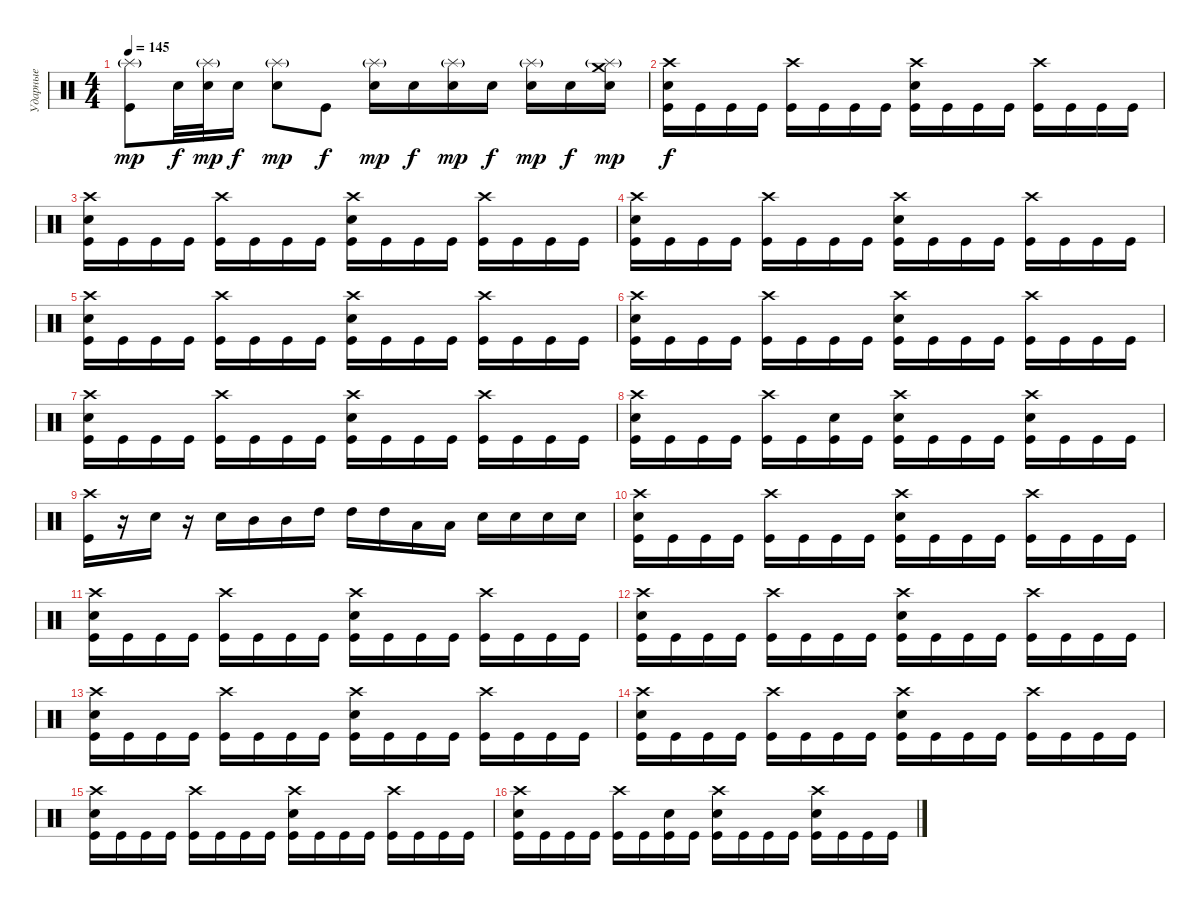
\track ("Ударные" "Ударные") {instrument percussion}
\staff {score}
\articulation defaults
\ts (4 4)
\tempo 145
\clef neutral
\ks c
("Splash (hit)"{g} "Kick (hit)").8{dy mp} "Snare (hit) 2".32{dy f} ("Splash (hit)"{g} "Snare (hit) 2").32{dy mp} "Snare (hit) 2".16{dy f} ("Splash (hit)"{g} "Electric Snare (hit)").8{dy mp} "Kick (hit)".8{dy f} ("Splash (hit)"{g} "Snare (hit) 2").16{dy mp} "Snare (hit) 2".16{dy f} ("Splash (hit)"{g} "Snare (hit) 2").16{dy mp} "Snare (hit) 2".16{dy f} ("Splash (hit)"{g} "Electric Snare (hit)").16{dy mp} "Electric Snare (hit)".16{dy f} ("Splash (hit)"{g} "Electric Snare (hit)" "Crash medium (hit)").16{dy mp} |
("Kick (hit)" "Electric Snare (hit)" "Crash high (hit)").16{dy f} "Kick (hit)".16 "Kick (hit)".16 "Kick (hit)".16 ("Kick (hit)" "Crash high (hit)").16 "Kick (hit)".16 "Kick (hit)".16 "Kick (hit)".16 ("Kick (hit)" "Electric Snare (hit)" "Crash high (hit)").16 "Kick (hit)".16 "Kick (hit)".16 "Kick (hit)".16 ("Kick (hit)" "Crash high (hit)").16 "Kick (hit)".16 "Kick (hit)".16 "Kick (hit)".16 |
("Kick (hit)" "Electric Snare (hit)" "Crash high (hit)").16 "Kick (hit)".16 "Kick (hit)".16 "Kick (hit)".16 ("Kick (hit)" "Crash high (hit)").16 "Kick (hit)".16 "Kick (hit)".16 "Kick (hit)".16 ("Kick (hit)" "Electric Snare (hit)" "Crash high (hit)").16 "Kick (hit)".16 "Kick (hit)".16 "Kick (hit)".16 ("Kick (hit)" "Crash high (hit)").16 "Kick (hit)".16 "Kick (hit)".16 "Kick (hit)".16 |
("Kick (hit)" "Electric Snare (hit)" "Crash high (hit)").16 "Kick (hit)".16 "Kick (hit)".16 "Kick (hit)".16 ("Kick (hit)" "Crash high (hit)").16 "Kick (hit)".16 "Kick (hit)".16 "Kick (hit)".16 ("Kick (hit)" "Electric Snare (hit)" "Crash high (hit)").16 "Kick (hit)".16 "Kick (hit)".16 "Kick (hit)".16 ("Kick (hit)" "Crash high (hit)").16 "Kick (hit)".16 "Kick (hit)".16 "Kick (hit)".16 |
("Kick (hit)" "Electric Snare (hit)" "Crash high (hit)").16 "Kick (hit)".16 "Kick (hit)".16 "Kick (hit)".16 ("Kick (hit)" "Crash high (hit)").16 "Kick (hit)".16 "Kick (hit)".16 "Kick (hit)".16 ("Kick (hit)" "Electric Snare (hit)" "Crash high (hit)").16 "Kick (hit)".16 "Kick (hit)".16 "Kick (hit)".16 ("Kick (hit)" "Crash high (hit)").16 "Kick (hit)".16 "Kick (hit)".16 "Kick (hit)".16 |
("Kick (hit)" "Electric Snare (hit)" "Crash high (hit)").16 "Kick (hit)".16 "Kick (hit)".16 "Kick (hit)".16 ("Kick (hit)" "Crash high (hit)").16 "Kick (hit)".16 "Kick (hit)".16 "Kick (hit)".16 ("Kick (hit)" "Electric Snare (hit)" "Crash high (hit)").16 "Kick (hit)".16 "Kick (hit)".16 "Kick (hit)".16 ("Kick (hit)" "Crash high (hit)").16 "Kick (hit)".16 "Kick (hit)".16 "Kick (hit)".16 |
("Kick (hit)" "Electric Snare (hit)" "Crash high (hit)").16 "Kick (hit)".16 "Kick (hit)".16 "Kick (hit)".16 ("Kick (hit)" "Crash high (hit)").16 "Kick (hit)".16 "Kick (hit)".16 "Kick (hit)".16 ("Kick (hit)" "Electric Snare (hit)" "Crash high (hit)").16 "Kick (hit)".16 "Kick (hit)".16 "Kick (hit)".16 ("Kick (hit)" "Crash high (hit)").16 "Kick (hit)".16 "Kick (hit)".16 "Kick (hit)".16 |
("Kick (hit)" "Electric Snare (hit)" "Crash high (hit)").16 "Kick (hit)".16 "Kick (hit)".16 "Kick (hit)".16 ("Kick (hit)" "Crash high (hit)").16 "Kick (hit)".16 ("Kick (hit)" "Electric Snare (hit)").16 "Kick (hit)".16 ("Kick (hit)" "Snare (hit) 2" "Crash high (hit)").16 "Kick (hit)".16 "Kick (hit)".16 "Kick (hit)".16 ("Kick (hit)" "Electric Snare (hit)" "Crash high (hit)").16 "Kick (hit)".16 "Kick (hit)".16 "Kick (hit)".16 |
("Kick (hit)" "Crash high (hit)").16 r.16 "Electric Snare (hit)".16 r.16 "Electric Snare (hit)".16 "Mid Tom (hit)".16 "Mid Tom (hit)".16 "High Tom (hit)".16 "High Tom (hit)".16 "High Tom (hit)".16 "Low Floor Tom (hit)".16 "Low Floor Tom (hit)".16 "Electric Snare (hit)".16 "Electric Snare (hit)".16 "Electric Snare (hit)".16 "Electric Snare (hit)".16 |
("Kick (hit)" "Electric Snare (hit)" "Crash high (hit)").16 "Kick (hit)".16 "Kick (hit)".16 "Kick (hit)".16 ("Kick (hit)" "Crash high (hit)").16 "Kick (hit)".16 "Kick (hit)".16 "Kick (hit)".16 ("Kick (hit)" "Electric Snare (hit)" "Crash high (hit)").16 "Kick (hit)".16 "Kick (hit)".16 "Kick (hit)".16 ("Kick (hit)" "Crash high (hit)").16 "Kick (hit)".16 "Kick (hit)".16 "Kick (hit)".16 |
("Kick (hit)" "Electric Snare (hit)" "Crash high (hit)").16 "Kick (hit)".16 "Kick (hit)".16 "Kick (hit)".16 ("Kick (hit)" "Crash high (hit)").16 "Kick (hit)".16 "Kick (hit)".16 "Kick (hit)".16 ("Kick (hit)" "Electric Snare (hit)" "Crash high (hit)").16 "Kick (hit)".16 "Kick (hit)".16 "Kick (hit)".16 ("Kick (hit)" "Crash high (hit)").16 "Kick (hit)".16 "Kick (hit)".16 "Kick (hit)".16 |
("Kick (hit)" "Electric Snare (hit)" "Crash high (hit)").16 "Kick (hit)".16 "Kick (hit)".16 "Kick (hit)".16 ("Kick (hit)" "Crash high (hit)").16 "Kick (hit)".16 "Kick (hit)".16 "Kick (hit)".16 ("Kick (hit)" "Electric Snare (hit)" "Crash high (hit)").16 "Kick (hit)".16 "Kick (hit)".16 "Kick (hit)".16 ("Kick (hit)" "Crash high (hit)").16 "Kick (hit)".16 "Kick (hit)".16 "Kick (hit)".16 |
("Kick (hit)" "Electric Snare (hit)" "Crash high (hit)").16 "Kick (hit)".16 "Kick (hit)".16 "Kick (hit)".16 ("Kick (hit)" "Crash high (hit)").16 "Kick (hit)".16 "Kick (hit)".16 "Kick (hit)".16 ("Kick (hit)" "Electric Snare (hit)" "Crash high (hit)").16 "Kick (hit)".16 "Kick (hit)".16 "Kick (hit)".16 ("Kick (hit)" "Crash high (hit)").16 "Kick (hit)".16 "Kick (hit)".16 "Kick (hit)".16 |
("Kick (hit)" "Electric Snare (hit)" "Crash high (hit)").16 "Kick (hit)".16 "Kick (hit)".16 "Kick (hit)".16 ("Kick (hit)" "Crash high (hit)").16 "Kick (hit)".16 "Kick (hit)".16 "Kick (hit)".16 ("Kick (hit)" "Electric Snare (hit)" "Crash high (hit)").16 "Kick (hit)".16 "Kick (hit)".16 "Kick (hit)".16 ("Kick (hit)" "Crash high (hit)").16 "Kick (hit)".16 "Kick (hit)".16 "Kick (hit)".16 |
("Kick (hit)" "Electric Snare (hit)" "Crash high (hit)").16 "Kick (hit)".16 "Kick (hit)".16 "Kick (hit)".16 ("Kick (hit)" "Crash high (hit)").16 "Kick (hit)".16 "Kick (hit)".16 "Kick (hit)".16 ("Kick (hit)" "Electric Snare (hit)" "Crash high (hit)").16 "Kick (hit)".16 "Kick (hit)".16 "Kick (hit)".16 ("Kick (hit)" "Crash high (hit)").16 "Kick (hit)".16 "Kick (hit)".16 "Kick (hit)".16 |
("Kick (hit)" "Electric Snare (hit)" "Crash high (hit)").16 "Kick (hit)".16 "Kick (hit)".16 "Kick (hit)".16 ("Kick (hit)" "Crash high (hit)").16 "Kick (hit)".16 ("Kick (hit)" "Electric Snare (hit)").16 "Kick (hit)".16 ("Kick (hit)" "Snare (hit) 2" "Crash high (hit)").16 "Kick (hit)".16 "Kick (hit)".16 "Kick (hit)".16 ("Kick (hit)" "Electric Snare (hit)" "Crash high (hit)").16 "Kick (hit)".16 "Kick (hit)".16 "Kick (hit)".16
